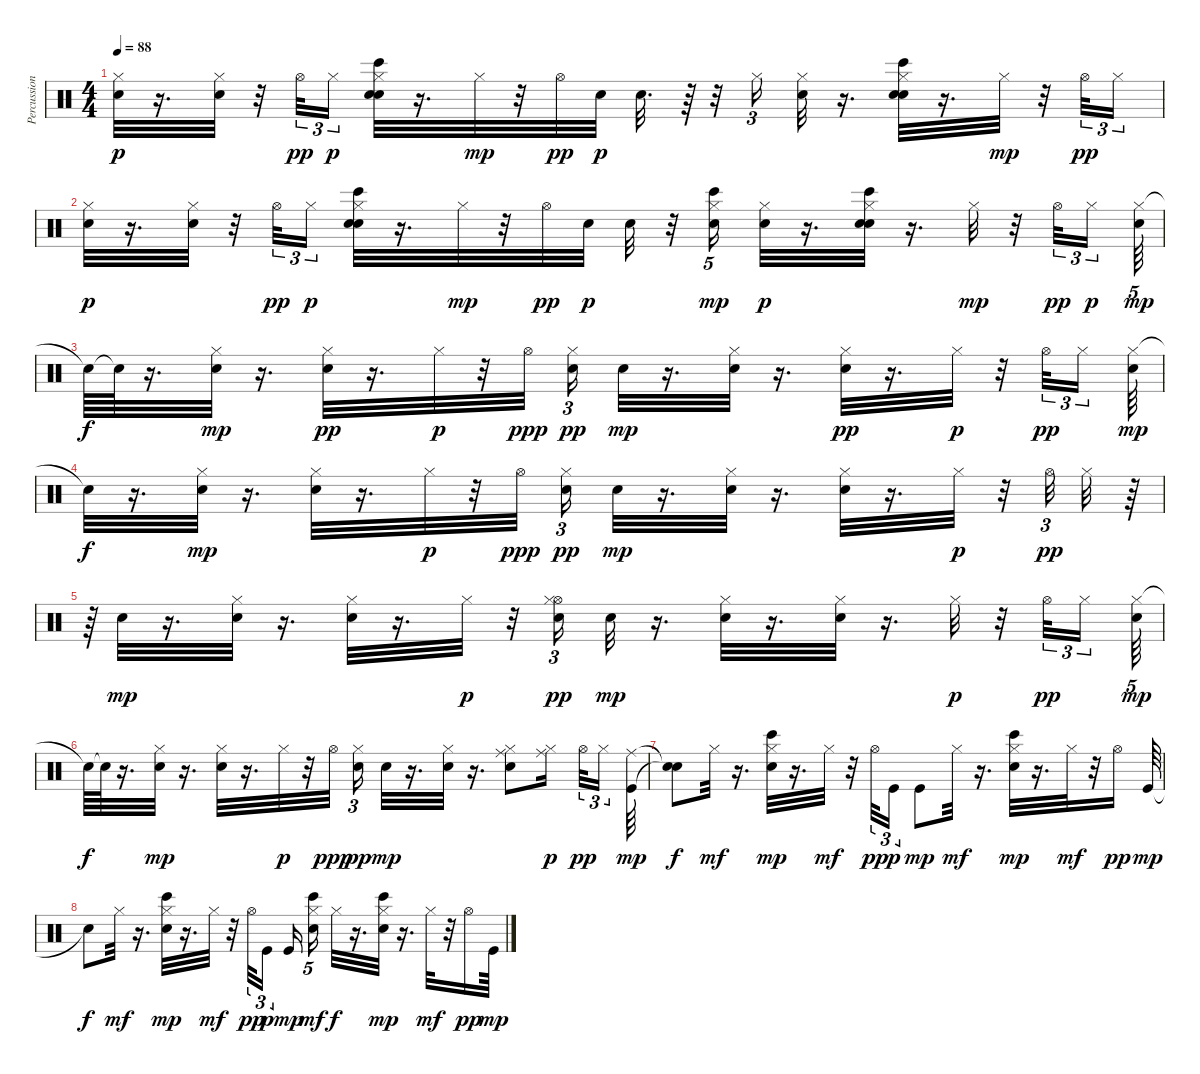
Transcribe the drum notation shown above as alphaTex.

\track ("Percussion" "Percussion") {instrument percussion}
\staff {score}
\articulation defaults
\ts (4 4)
\tempo 88
\clef neutral
\ks c
("Hi-Hat (closed)" "Snare (hit) 2").32{dy p} r.16{d} ("Hi-Hat (closed)" "Snare (hit) 2").32 r.32 "Hi-Hat (open)".32{tu (3 2) dy pp} "Hi-Hat (closed)".16{tu (3 2) dy p} ("Hi-Hat (closed)" "Bongo High (hit)" "Electric Snare (hit)" "Snare (hit) 2").32 r.16{d} "Hi-Hat (closed)".32{dy mp} r.32 "Hi-Hat (open)".32{dy pp} "Snare (hit) 2".32{dy p} "Snare (hit) 2".32{d} r.64 r.32 "Hi-Hat (closed)".16{tu (3 2)} ("Hi-Hat (closed)" "Snare (hit) 2").32 r.16{d} ("Hi-Hat (closed)" "Bongo High (hit)" "Electric Snare (hit)" "Snare (hit) 2").32 r.16{d} "Hi-Hat (closed)".32{dy mp} r.32 "Hi-Hat (open)".32{tu (3 2) dy pp} "Hi-Hat (closed)".16{tu (3 2)} |
("Hi-Hat (closed)" "Snare (hit) 2").32{dy p} r.16{d} ("Hi-Hat (closed)" "Snare (hit) 2").32 r.32 "Hi-Hat (open)".32{tu (3 2) dy pp} "Hi-Hat (closed)".16{tu (3 2) dy p} ("Hi-Hat (closed)" "Bongo High (hit)" "Electric Snare (hit)" "Snare (hit) 2").32 r.16{d} "Hi-Hat (closed)".32{dy mp} r.32 "Hi-Hat (open)".32{dy pp} "Snare (hit) 2".32{dy p} "Snare (hit) 2".32 r.32 ("Bongo High (hit)" "Electric Snare (hit)" "Hi-Hat (closed)").16{tu (5 4) dy mp} ("Hi-Hat (closed)" "Snare (hit) 2").32{dy p} r.16{d} ("Hi-Hat (closed)" "Bongo High (hit)" "Electric Snare (hit)" "Snare (hit) 2").32 r.16{d} "Hi-Hat (closed)".32{dy mp} r.32 "Hi-Hat (open)".32{tu (3 2) dy pp} "Hi-Hat (closed)".16{tu (3 2) dy p} ("Hi-Hat (closed)" "Snare (hit) 2").64{tu (5 4) dy mp volume 13} |
"Snare (hit)"{t}.64{dy f} "Snare (hit)"{t}.64 r.16{d} ("Hi-Hat (closed)" "Snare (hit) 2").32{dy mp volume 13} r.16{d} ("Snare (hit) 2" "Hi-Hat (closed)").32{dy pp} r.16{d} "Hi-Hat (closed)".32{dy p} r.32 "Hi-Hat (open)".32{dy ppp} ("Snare (hit) 2" "Hi-Hat (closed)").16{tu (3 2) dy pp} "Snare (hit) 2".32{dy mp} r.16{d} ("Hi-Hat (closed)" "Snare (hit) 2").32 r.16{d} ("Snare (hit) 2" "Hi-Hat (closed)").32{dy pp} r.16{d} "Hi-Hat (closed)".32{dy p} r.32 "Hi-Hat (open)".32{tu (3 2) dy pp} "Hi-Hat (closed)".16{tu (3 2)} ("Hi-Hat (closed)" "Snare (hit) 2").64{dy mp} |
"Snare (hit)"{t}.32{dy f} r.16{d} ("Hi-Hat (closed)" "Snare (hit) 2").32{dy mp} r.16{d} ("Hi-Hat (closed)" "Snare (hit) 2").32 r.16{d} "Hi-Hat (closed)".32{dy p} r.32 "Hi-Hat (open)".32{dy ppp} ("Snare (hit) 2" "Hi-Hat (closed)").16{tu (3 2) dy pp} "Snare (hit) 2".32{dy mp} r.16{d} ("Hi-Hat (closed)" "Snare (hit) 2").32 r.16{d} ("Hi-Hat (closed)" "Snare (hit) 2").32 r.16{d} "Hi-Hat (closed)".32{dy p} r.32 "Hi-Hat (open)".32{tu (3 2) dy pp} "Hi-Hat (closed)".32 r.64 |
r.64 "Snare (hit) 2".32{dy mp} r.16{d} ("Hi-Hat (closed)" "Snare (hit) 2").32 r.16{d} ("Hi-Hat (closed)" "Snare (hit) 2").32 r.16{d} "Hi-Hat (closed)".32{dy p} r.32 ("Hi-Hat (open)" "Snare (hit) 2" "Hi-Hat (closed)").16{tu (3 2) dy pp} "Snare (hit) 2".32{dy mp} r.16{d} ("Hi-Hat (closed)" "Snare (hit) 2").32 r.16{d} ("Hi-Hat (closed)" "Snare (hit) 2").32 r.16{d} "Hi-Hat (closed)".32{dy p} r.32 "Hi-Hat (open)".32{tu (3 2) dy pp} "Hi-Hat (closed)".16{tu (3 2)} ("Hi-Hat (closed)" "Snare (hit) 2").64{tu (5 4) dy mp} |
"Snare (hit)"{t}.64{dy f} "Snare (hit)"{t}.64 r.16{d} ("Hi-Hat (closed)" "Snare (hit) 2").32{dy mp} r.16{d} ("Hi-Hat (closed)" "Snare (hit) 2").32 r.16{d} "Hi-Hat (closed)".32{dy p} r.32 "Hi-Hat (open)".32{dy ppp} ("Snare (hit) 2" "Hi-Hat (closed)").16{tu (3 2) dy pp} "Snare (hit) 2".32{dy mp} r.16{d} ("Hi-Hat (closed)" "Snare (hit) 2").32 r.16{d} ("Ride (middle)" "Hi-Hat (closed)" "Snare (hit) 2").8 ("Ride (middle)" "Hi-Hat (closed)").16{dy p} "Hi-Hat (open)".32{tu (3 2) dy pp} "Hi-Hat (closed)".16{tu (3 2)} ("Ride (middle)" "Kick (hit)").64{dy mp volume 12} |
("Snare (hit)"{t} "Snare (hit)"{t}).8{dy f} "Hi-Hat (closed)".32{dy mf} r.16{d} ("Bongo High (hit)" "Hi-Hat (closed)" "Electric Snare (hit)").32{dy mp} r.16{d} "Hi-Hat (closed)".32{dy mf} r.32 "Hi-Hat (open)".32{tu (3 2) dy pp} "Kick (hit)".16{tu (3 2) dy p} "Kick (hit)".8{dy mp} "Hi-Hat (closed)".32{dy mf} r.16{d} ("Bongo High (hit)" "Hi-Hat (closed)" "Electric Snare (hit)").32{dy mp} r.16{d} "Hi-Hat (closed)".32{dy mf} r.32 "Hi-Hat (open)".16{dy pp} "Kick (hit)".64{dy mp} |
"Snare (hit)"{t}.8{dy f} "Hi-Hat (closed)".32{dy mf} r.16{d} ("Bongo High (hit)" "Hi-Hat (closed)" "Electric Snare (hit)").32{dy mp} r.16{d} "Hi-Hat (closed)".32{dy mf} r.32 "Hi-Hat (open)".32{tu (3 2) dy pp} "Kick (hit)".16{tu (3 2) dy p} "Kick (hit)".16{dy mp} ("Bongo High (hit)" "Electric Snare (hit)" "Hi-Hat (closed)").16{tu (5 4) dy mf} "Hi-Hat (closed)".32{dy f} r.16{d} ("Bongo High (hit)" "Hi-Hat (closed)" "Electric Snare (hit)").32{dy mp} r.16{d} "Hi-Hat (closed)".32{dy mf} r.32 "Hi-Hat (open)".16{dy pp} "Kick (hit)".64{dy mp}
